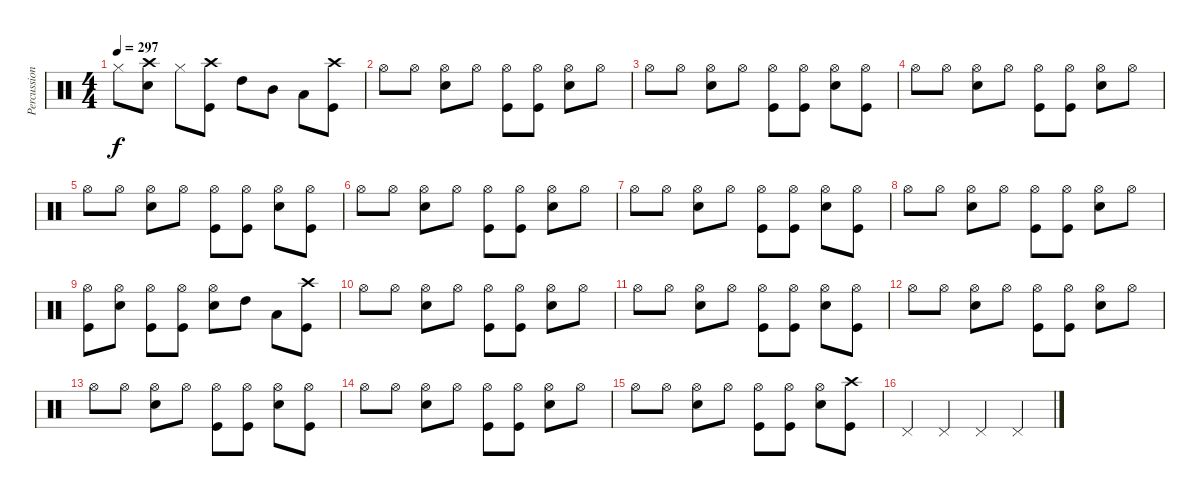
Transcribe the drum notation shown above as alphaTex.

\track ("Percussioni" "Percussion") {instrument percussion}
\staff {score}
\articulation defaults
\ts (4 4)
\tempo 297
\clef neutral
\ks c "Hi-Hat (closed)".8{dy f}
("Crash high (hit)" "Snare (hit) 2").8 "Hi-Hat (closed)".8 ("Crash high (hit)" "Kick (hit)").8 "High Tom (hit)".8 "Mid Tom (hit)".8 "Low Tom (hit)".8 ("Kick (hit)" "Crash high (hit)").8 |
"Hi-Hat (open)".8 "Hi-Hat (open)".8 ("Hi-Hat (open)" "Snare (hit) 2").8 "Hi-Hat (open)".8 ("Hi-Hat (open)" "Kick (hit)").8 ("Hi-Hat (open)" "Kick (hit)").8 ("Hi-Hat (open)" "Snare (hit) 2").8 "Hi-Hat (open)".8 |
"Hi-Hat (open)".8 "Hi-Hat (open)".8 ("Hi-Hat (open)" "Snare (hit) 2").8 "Hi-Hat (open)".8 ("Hi-Hat (open)" "Kick (hit)").8 ("Hi-Hat (open)" "Kick (hit)").8 ("Hi-Hat (open)" "Snare (hit) 2").8 ("Hi-Hat (open)" "Kick (hit)").8 |
"Hi-Hat (open)".8 "Hi-Hat (open)".8 ("Hi-Hat (open)" "Snare (hit) 2").8 "Hi-Hat (open)".8 ("Hi-Hat (open)" "Kick (hit)").8 ("Hi-Hat (open)" "Kick (hit)").8 ("Hi-Hat (open)" "Snare (hit) 2").8 "Hi-Hat (open)".8 |
"Hi-Hat (open)".8 "Hi-Hat (open)".8 ("Hi-Hat (open)" "Snare (hit) 2").8 "Hi-Hat (open)".8 ("Hi-Hat (open)" "Kick (hit)").8 ("Hi-Hat (open)" "Kick (hit)").8 ("Hi-Hat (open)" "Snare (hit) 2").8 ("Hi-Hat (open)" "Kick (hit)").8 |
"Hi-Hat (open)".8 "Hi-Hat (open)".8 ("Hi-Hat (open)" "Snare (hit) 2").8 "Hi-Hat (open)".8 ("Hi-Hat (open)" "Kick (hit)").8 ("Hi-Hat (open)" "Kick (hit)").8 ("Hi-Hat (open)" "Snare (hit) 2").8 "Hi-Hat (open)".8 |
"Hi-Hat (open)".8 "Hi-Hat (open)".8 ("Hi-Hat (open)" "Snare (hit) 2").8 "Hi-Hat (open)".8 ("Hi-Hat (open)" "Kick (hit)").8 ("Hi-Hat (open)" "Kick (hit)").8 ("Hi-Hat (open)" "Snare (hit) 2").8 ("Hi-Hat (open)" "Kick (hit)").8 |
"Hi-Hat (open)".8 "Hi-Hat (open)".8 ("Hi-Hat (open)" "Snare (hit) 2").8 "Hi-Hat (open)".8 ("Hi-Hat (open)" "Kick (hit)").8 ("Hi-Hat (open)" "Kick (hit)").8 ("Hi-Hat (open)" "Snare (hit) 2").8 "Hi-Hat (open)".8 |
("Hi-Hat (open)" "Kick (hit)").8 ("Hi-Hat (open)" "Snare (hit) 2").8 ("Hi-Hat (open)" "Kick (hit)").8 ("Hi-Hat (open)" "Kick (hit)").8 ("Hi-Hat (open)" "Snare (hit) 2").8 "High Tom (hit)".8 "Low Tom (hit)".8 ("Kick (hit)" "Crash high (hit)").8 |
"Hi-Hat (open)".8 "Hi-Hat (open)".8 ("Hi-Hat (open)" "Snare (hit) 2").8 "Hi-Hat (open)".8 ("Hi-Hat (open)" "Kick (hit)").8 ("Hi-Hat (open)" "Kick (hit)").8 ("Hi-Hat (open)" "Snare (hit) 2").8 "Hi-Hat (open)".8 |
"Hi-Hat (open)".8 "Hi-Hat (open)".8 ("Hi-Hat (open)" "Snare (hit) 2").8 "Hi-Hat (open)".8 ("Hi-Hat (open)" "Kick (hit)").8 ("Hi-Hat (open)" "Kick (hit)").8 ("Hi-Hat (open)" "Snare (hit) 2").8 ("Hi-Hat (open)" "Kick (hit)").8 |
"Hi-Hat (open)".8 "Hi-Hat (open)".8 ("Hi-Hat (open)" "Snare (hit) 2").8 "Hi-Hat (open)".8 ("Hi-Hat (open)" "Kick (hit)").8 ("Hi-Hat (open)" "Kick (hit)").8 ("Hi-Hat (open)" "Snare (hit) 2").8 "Hi-Hat (open)".8 |
"Hi-Hat (open)".8 "Hi-Hat (open)".8 ("Hi-Hat (open)" "Snare (hit) 2").8 "Hi-Hat (open)".8 ("Hi-Hat (open)" "Kick (hit)").8 ("Hi-Hat (open)" "Kick (hit)").8 ("Hi-Hat (open)" "Snare (hit) 2").8 ("Hi-Hat (open)" "Kick (hit)").8 |
"Hi-Hat (open)".8 "Hi-Hat (open)".8 ("Hi-Hat (open)" "Snare (hit) 2").8 "Hi-Hat (open)".8 ("Hi-Hat (open)" "Kick (hit)").8 ("Hi-Hat (open)" "Kick (hit)").8 ("Hi-Hat (open)" "Snare (hit) 2").8 "Hi-Hat (open)".8 |
"Hi-Hat (open)".8 "Hi-Hat (open)".8 ("Hi-Hat (open)" "Snare (hit) 2").8 "Hi-Hat (open)".8 ("Hi-Hat (open)" "Kick (hit)").8 ("Hi-Hat (open)" "Kick (hit)").8 ("Hi-Hat (open)" "Snare (hit) 2").8 ("Crash high (hit)" "Kick (hit)").8 |
"Pedal Hi-Hat (hit)".4 "Pedal Hi-Hat (hit)".4 "Pedal Hi-Hat (hit)".4 "Pedal Hi-Hat (hit)".4
